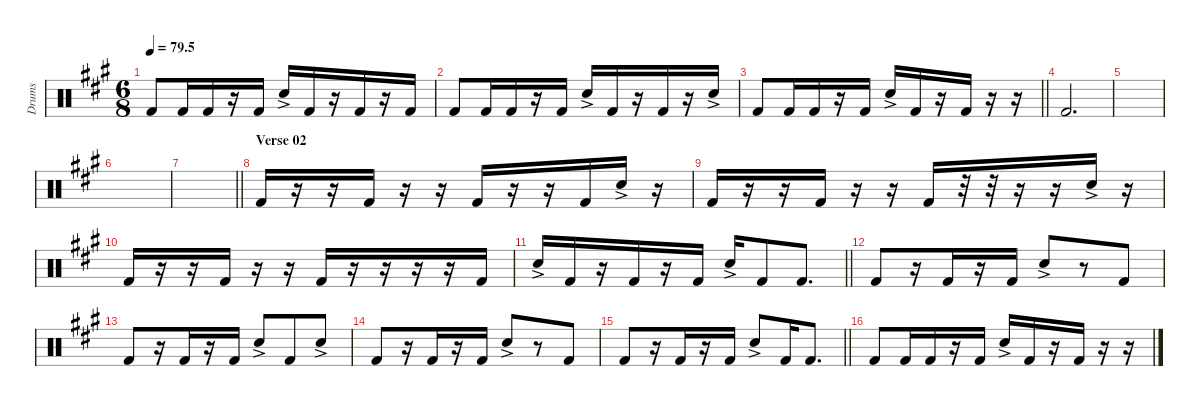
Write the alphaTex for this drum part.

\defaultSystemsLayout 4
\hideDynamics
\bracketExtendMode nobrackets
\otherSystemsTrackNameOrientation horizontal
\track ("F&S" "Drums") {instrument percussion}
\staff {score}
\articulation defaults
\ts (6 8)
\tempo
79.5
\accidentals auto
\clef neutral
\ottava regular
\simile none
\scale
0.333333
\ks a "Kick (hit) 2"{acc forcenatural}.8{dy f} "Kick (hit) 2"{acc forcenatural}.16 "Kick (hit) 2"{acc forcenatural}.16
r.16 "Kick (hit) 2"{acc forcenatural}.16 "Snare (hit) 2"{ac acc forcenatural}.16 "Kick (hit) 2"{acc forcenatural}.16 r.16 "Kick (hit) 2"{acc forcenatural}.16 r.16 "Kick (hit) 2"{acc forcenatural}.16 |
\scale
0.333333 "Kick (hit) 2"{acc forcenatural}.8 "Kick (hit) 2"{acc forcenatural}.16 "Kick (hit) 2"{acc forcenatural}.16 r.16 "Kick (hit) 2"{acc forcenatural}.16 "Snare (hit) 2"{ac acc forcenatural}.16 "Kick (hit) 2"{acc forcenatural}.16 r.16 "Kick (hit) 2"{acc forcenatural}.16 r.16 "Snare (hit) 2"{ac acc forcenatural}.16 |
\scale
0.333333
\barLineRight lightlight "Kick (hit) 2"{acc forcenatural}.8 "Kick (hit) 2"{acc forcenatural}.16 "Kick (hit) 2"{acc forcenatural}.16
r.16 "Kick (hit) 2"{acc forcenatural}.16 "Snare (hit) 2"{ac acc forcenatural}.16 "Kick (hit) 2"{acc forcenatural}.16 r.16 "Kick (hit) 2"{acc forcenatural}.16 r.16 r.16 |
\scale
0.333333 "Kick (hit) 2"{acc forcenatural}.2{d} |
\scale
0.333333 |
\scale
0.333333 |
\scale
0.333333
\barLineRight lightlight
|
\section ("" "Verse 02")
\scale
0.333333 "Kick (hit) 2"{acc forcenatural}.16 r.16 r.16 "Kick (hit) 2"{acc forcenatural}.16 r.16 r.16 "Kick (hit) 2"{acc forcenatural}.16 r.16 r.16 "Kick (hit) 2"{acc forcenatural}.16 "Snare (hit) 2"{ac acc forcenatural}.16 r.16 |
\scale
0.333333 "Kick (hit) 2"{acc forcenatural}.16 r.16 r.16 "Kick (hit) 2"{acc forcenatural}.16 r.16 r.16 "Kick (hit) 2"{acc forcenatural}.16 r.32 r.32 r.16 r.16 "Snare (hit) 2"{ac acc forcenatural}.16 r.16 |
\scale
0.333333 "Kick (hit) 2"{acc forcenatural}.16 r.16 r.16 "Kick (hit) 2"{acc forcenatural}.16 r.16 r.16 "Kick (hit) 2"{acc forcenatural}.16 r.16 r.16 r.16 r.16 "Kick (hit) 2"{acc forcenatural}.16 |
\scale
0.333333
\barLineRight lightlight "Snare (hit) 2"{ac acc forcenatural}.16 "Kick (hit) 2"{acc forcenatural}.16
r.16 "Kick (hit) 2"{acc forcenatural}.16 r.16 "Kick (hit) 2"{acc forcenatural}.16 "Snare (hit) 2"{ac acc forcenatural}.16 "Kick (hit) 2"{acc forcenatural}.8 "Kick (hit) 2"{acc forcenatural}.8{d} |
\scale
0.333333 "Kick (hit) 2"{acc forcenatural}.8 r.16 "Kick (hit) 2"{acc forcenatural}.16 r.16 "Kick (hit) 2"{acc forcenatural}.16 "Snare (hit) 2"{ac acc forcenatural}.8 r.8 "Kick (hit) 2"{acc forcenatural}.8 |
\scale
0.333333 "Kick (hit) 2"{acc forcenatural}.8 r.16 "Kick (hit) 2"{acc forcenatural}.16 r.16 "Kick (hit) 2"{acc forcenatural}.16 "Snare (hit) 2"{ac acc forcenatural}.8 "Kick (hit) 2"{acc forcenatural}.8 "Snare (hit) 2"{ac acc forcenatural}.8 |
\scale
0.333333 "Kick (hit) 2"{acc forcenatural}.8 r.16 "Kick (hit) 2"{acc forcenatural}.16 r.16 "Kick (hit) 2"{acc forcenatural}.16 "Snare (hit) 2"{ac acc forcenatural}.8 r.8 "Kick (hit) 2"{acc forcenatural}.8 |
\scale
0.333333
\barLineRight lightlight "Kick (hit) 2"{acc forcenatural}.8
r.16 "Kick (hit) 2"{acc forcenatural}.16 r.16 "Kick (hit) 2"{acc forcenatural}.16 "Snare (hit) 2"{ac acc forcenatural}.8 "Kick (hit) 2"{acc forcenatural}.16 "Kick (hit) 2"{acc forcenatural}.8{d} |
\scale
0.333333 "Kick (hit) 2"{acc forcenatural}.8 "Kick (hit) 2"{acc forcenatural}.16 "Kick (hit) 2"{acc forcenatural}.16 r.16 "Kick (hit) 2"{acc forcenatural}.16 "Snare (hit) 2"{ac acc forcenatural}.16 "Kick (hit) 2"{acc forcenatural}.16 r.16 "Kick (hit) 2"{acc forcenatural}.16 r.16 r.16
